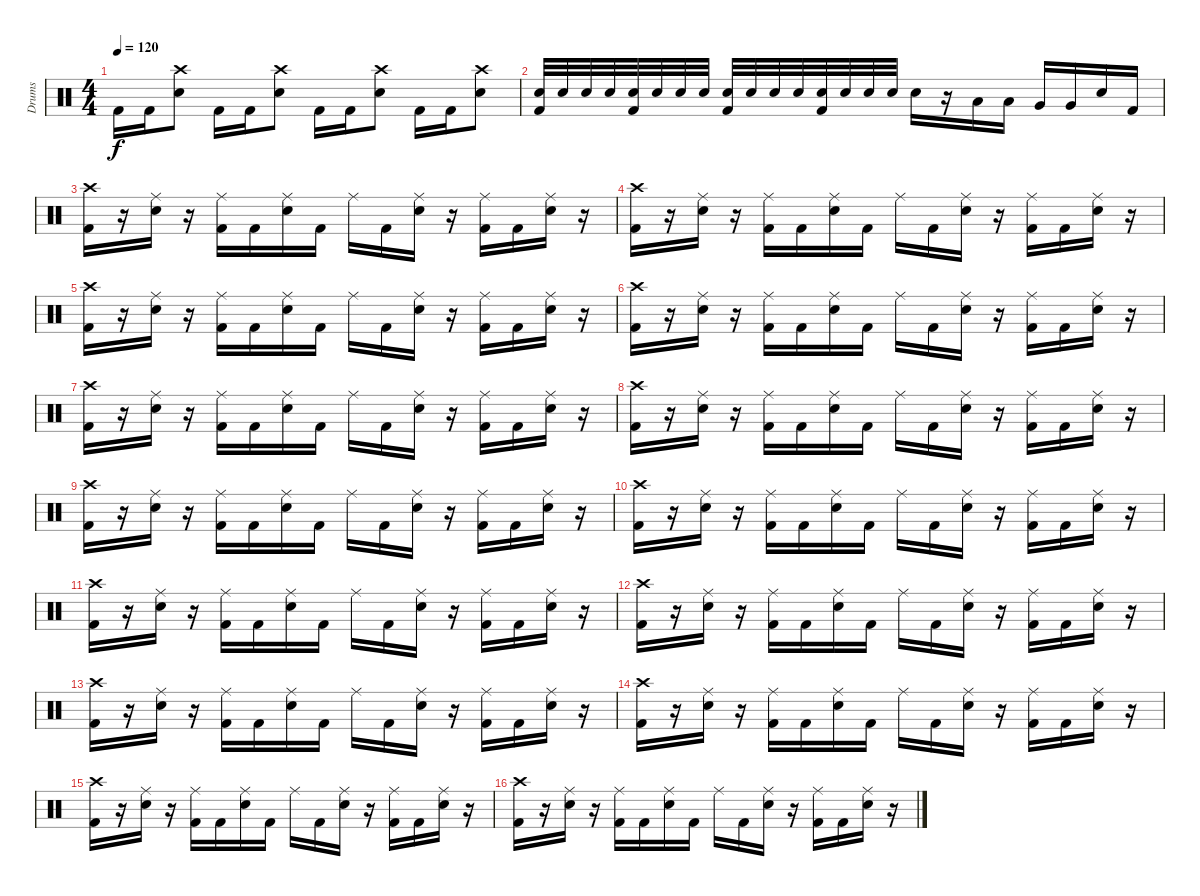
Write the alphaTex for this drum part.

\track ("Drums" "Drums") {instrument percussion}
\staff {score}
\articulation defaults
\ts (4 4)
\tempo 120
\clef neutral
\ks c "Kick (hit) 2".16{dy f} "Kick (hit) 2".16
("Crash high (hit)" "Snare (hit) 2").8 "Kick (hit) 2".16 "Kick (hit) 2".16 ("Crash high (hit)" "Snare (hit) 2").8 "Kick (hit) 2".16 "Kick (hit) 2".16 ("Crash high (hit)" "Snare (hit) 2").8 "Kick (hit) 2".16 "Kick (hit) 2".16 ("Crash high (hit)" "Snare (hit) 2").8 |
("Snare (hit) 2" "Kick (hit) 2").32 "Snare (hit) 2".32 "Snare (hit) 2".32 "Snare (hit) 2".32 ("Snare (hit) 2" "Kick (hit) 2").32 "Snare (hit) 2".32 "Snare (hit) 2".32 "Snare (hit) 2".32 ("Snare (hit) 2" "Kick (hit) 2").32 "Snare (hit) 2".32 "Snare (hit) 2".32 "Snare (hit) 2".32 ("Snare (hit) 2" "Kick (hit) 2").32 "Snare (hit) 2".32 "Snare (hit) 2".32 "Snare (hit) 2".32 "Snare (hit) 2".16 r.16 "Low Tom (hit)".16 "Low Tom (hit)".16 "Very Low Tom (hit)".16 "Very Low Tom (hit)".16 "Snare (hit) 2".16 "Kick (hit) 2".16 |
("Crash high (hit)" "Kick (hit) 2").16 r.16 ("Ride (middle)" "Snare (hit) 2").16 r.16 ("Ride (middle)" "Kick (hit) 2").16 "Kick (hit) 2".16 ("Ride (middle)" "Snare (hit) 2").16 "Kick (hit) 2".16 "Ride (middle)".16 "Kick (hit) 2".16 ("Ride (middle)" "Snare (hit) 2").16 r.16 ("Ride (middle)" "Kick (hit) 2").16 "Kick (hit) 2".16 ("Ride (middle)" "Snare (hit) 2").16 r.16 |
("Crash high (hit)" "Kick (hit) 2").16 r.16 ("Ride (middle)" "Snare (hit) 2").16 r.16 ("Ride (middle)" "Kick (hit) 2").16 "Kick (hit) 2".16 ("Ride (middle)" "Snare (hit) 2").16 "Kick (hit) 2".16 "Ride (middle)".16 "Kick (hit) 2".16 ("Ride (middle)" "Snare (hit) 2").16 r.16 ("Ride (middle)" "Kick (hit) 2").16 "Kick (hit) 2".16 ("Ride (middle)" "Snare (hit) 2").16 r.16 |
("Crash high (hit)" "Kick (hit) 2").16 r.16 ("Ride (middle)" "Snare (hit) 2").16 r.16 ("Ride (middle)" "Kick (hit) 2").16 "Kick (hit) 2".16 ("Ride (middle)" "Snare (hit) 2").16 "Kick (hit) 2".16 "Ride (middle)".16 "Kick (hit) 2".16 ("Ride (middle)" "Snare (hit) 2").16 r.16 ("Ride (middle)" "Kick (hit) 2").16 "Kick (hit) 2".16 ("Ride (middle)" "Snare (hit) 2").16 r.16 |
("Crash high (hit)" "Kick (hit) 2").16 r.16 ("Ride (middle)" "Snare (hit) 2").16 r.16 ("Ride (middle)" "Kick (hit) 2").16 "Kick (hit) 2".16 ("Ride (middle)" "Snare (hit) 2").16 "Kick (hit) 2".16 "Ride (middle)".16 "Kick (hit) 2".16 ("Ride (middle)" "Snare (hit) 2").16 r.16 ("Ride (middle)" "Kick (hit) 2").16 "Kick (hit) 2".16 ("Ride (middle)" "Snare (hit) 2").16 r.16 |
("Crash high (hit)" "Kick (hit) 2").16 r.16 ("Ride (middle)" "Snare (hit) 2").16 r.16 ("Ride (middle)" "Kick (hit) 2").16 "Kick (hit) 2".16 ("Ride (middle)" "Snare (hit) 2").16 "Kick (hit) 2".16 "Ride (middle)".16 "Kick (hit) 2".16 ("Ride (middle)" "Snare (hit) 2").16 r.16 ("Ride (middle)" "Kick (hit) 2").16 "Kick (hit) 2".16 ("Ride (middle)" "Snare (hit) 2").16 r.16 |
("Crash high (hit)" "Kick (hit) 2").16 r.16 ("Ride (middle)" "Snare (hit) 2").16 r.16 ("Ride (middle)" "Kick (hit) 2").16 "Kick (hit) 2".16 ("Ride (middle)" "Snare (hit) 2").16 "Kick (hit) 2".16 "Ride (middle)".16 "Kick (hit) 2".16 ("Ride (middle)" "Snare (hit) 2").16 r.16 ("Ride (middle)" "Kick (hit) 2").16 "Kick (hit) 2".16 ("Ride (middle)" "Snare (hit) 2").16 r.16 |
("Crash high (hit)" "Kick (hit) 2").16 r.16 ("Ride (middle)" "Snare (hit) 2").16 r.16 ("Ride (middle)" "Kick (hit) 2").16 "Kick (hit) 2".16 ("Ride (middle)" "Snare (hit) 2").16 "Kick (hit) 2".16 "Ride (middle)".16 "Kick (hit) 2".16 ("Ride (middle)" "Snare (hit) 2").16 r.16 ("Ride (middle)" "Kick (hit) 2").16 "Kick (hit) 2".16 ("Ride (middle)" "Snare (hit) 2").16 r.16 |
("Crash high (hit)" "Kick (hit) 2").16 r.16 ("Ride (middle)" "Snare (hit) 2").16 r.16 ("Ride (middle)" "Kick (hit) 2").16 "Kick (hit) 2".16 ("Ride (middle)" "Snare (hit) 2").16 "Kick (hit) 2".16 "Ride (middle)".16 "Kick (hit) 2".16 ("Ride (middle)" "Snare (hit) 2").16 r.16 ("Ride (middle)" "Kick (hit) 2").16 "Kick (hit) 2".16 ("Ride (middle)" "Snare (hit) 2").16 r.16 |
("Crash high (hit)" "Kick (hit) 2").16 r.16 ("Ride (middle)" "Snare (hit) 2").16 r.16 ("Ride (middle)" "Kick (hit) 2").16 "Kick (hit) 2".16 ("Ride (middle)" "Snare (hit) 2").16 "Kick (hit) 2".16 "Ride (middle)".16 "Kick (hit) 2".16 ("Ride (middle)" "Snare (hit) 2").16 r.16 ("Ride (middle)" "Kick (hit) 2").16 "Kick (hit) 2".16 ("Ride (middle)" "Snare (hit) 2").16 r.16 |
("Crash high (hit)" "Kick (hit) 2").16 r.16 ("Ride (middle)" "Snare (hit) 2").16 r.16 ("Ride (middle)" "Kick (hit) 2").16 "Kick (hit) 2".16 ("Ride (middle)" "Snare (hit) 2").16 "Kick (hit) 2".16 "Ride (middle)".16 "Kick (hit) 2".16 ("Ride (middle)" "Snare (hit) 2").16 r.16 ("Ride (middle)" "Kick (hit) 2").16 "Kick (hit) 2".16 ("Ride (middle)" "Snare (hit) 2").16 r.16 |
("Crash high (hit)" "Kick (hit) 2").16 r.16 ("Ride (middle)" "Snare (hit) 2").16 r.16 ("Ride (middle)" "Kick (hit) 2").16 "Kick (hit) 2".16 ("Ride (middle)" "Snare (hit) 2").16 "Kick (hit) 2".16 "Ride (middle)".16 "Kick (hit) 2".16 ("Ride (middle)" "Snare (hit) 2").16 r.16 ("Ride (middle)" "Kick (hit) 2").16 "Kick (hit) 2".16 ("Ride (middle)" "Snare (hit) 2").16 r.16 |
("Crash high (hit)" "Kick (hit) 2").16 r.16 ("Ride (middle)" "Snare (hit) 2").16 r.16 ("Ride (middle)" "Kick (hit) 2").16 "Kick (hit) 2".16 ("Ride (middle)" "Snare (hit) 2").16 "Kick (hit) 2".16 "Ride (middle)".16 "Kick (hit) 2".16 ("Ride (middle)" "Snare (hit) 2").16 r.16 ("Ride (middle)" "Kick (hit) 2").16 "Kick (hit) 2".16 ("Ride (middle)" "Snare (hit) 2").16 r.16 |
("Crash high (hit)" "Kick (hit) 2").16 r.16 ("Ride (middle)" "Snare (hit) 2").16 r.16 ("Ride (middle)" "Kick (hit) 2").16 "Kick (hit) 2".16 ("Ride (middle)" "Snare (hit) 2").16 "Kick (hit) 2".16 "Ride (middle)".16 "Kick (hit) 2".16 ("Ride (middle)" "Snare (hit) 2").16 r.16 ("Ride (middle)" "Kick (hit) 2").16 "Kick (hit) 2".16 ("Ride (middle)" "Snare (hit) 2").16 r.16 |
("Crash high (hit)" "Kick (hit) 2").16 r.16 ("Ride (middle)" "Snare (hit) 2").16 r.16 ("Ride (middle)" "Kick (hit) 2").16 "Kick (hit) 2".16 ("Ride (middle)" "Snare (hit) 2").16 "Kick (hit) 2".16 "Ride (middle)".16 "Kick (hit) 2".16 ("Ride (middle)" "Snare (hit) 2").16 r.16 ("Ride (middle)" "Kick (hit) 2").16 "Kick (hit) 2".16 ("Ride (middle)" "Snare (hit) 2").16 r.16
